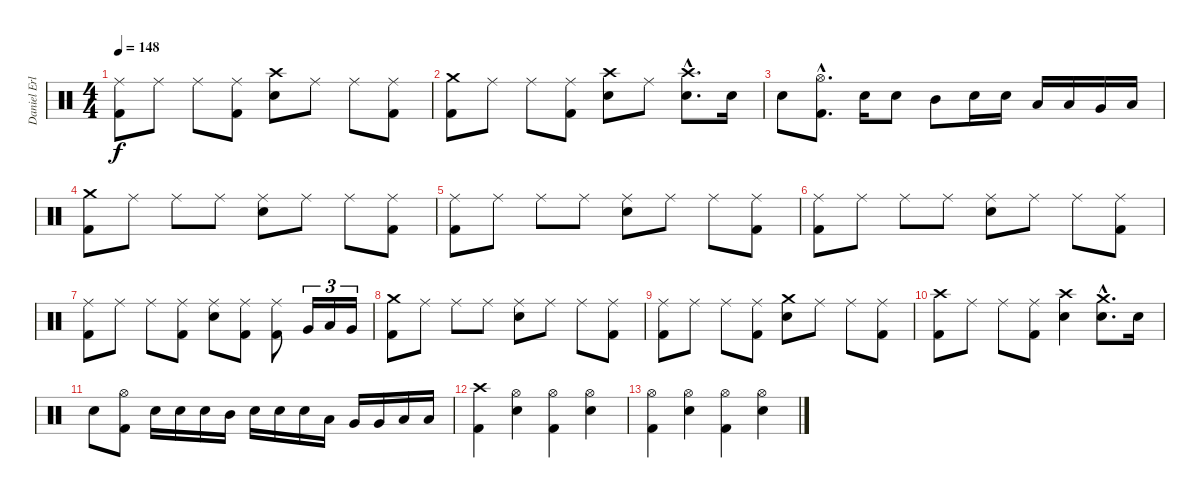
\track ("Daniel Erlandsson (Drums)" "Daniel Erl") {instrument percussion}
\staff {score}
\articulation defaults
\ts (4 4)
\tempo 148
\clef neutral
\ks c
("Ride (middle)" "Kick (hit) 2").8{dy f} "Ride (middle)".8 "Ride (middle)".8 ("Ride (middle)" "Kick (hit) 2").8 ("Crash high (hit)" "Snare (hit) 2").8 "Ride (middle)".8 "Ride (middle)".8 ("Ride (middle)" "Kick (hit) 2").8 |
("Crash medium (hit)" "Kick (hit) 2").8 "Ride (middle)".8 "Ride (middle)".8 ("Ride (middle)" "Kick (hit) 2").8 ("Crash high (hit)" "Snare (hit) 2").8 "Ride (middle)".8 ("Crash high (hit)"{hac} "Snare (hit) 2"{hac}).8{d} "Snare (hit) 2".16 |
"Snare (hit) 2".8 ("Kick (hit) 2"{hac} "Hi-Hat (open)"{hac}).8{d} "Snare (hit) 2".16 "Snare (hit) 2".8 "Mid Tom (hit)".8 "Snare (hit) 2".16 "Snare (hit) 2".16 "Low Tom (hit)".16 "Low Tom (hit)".16 "Very Low Tom (hit)".16 "Low Floor Tom (hit)".16 |
("Crash medium (hit)" "Kick (hit) 2").8 "Ride (middle)".8 "Ride (middle)".8 "Ride (middle)".8 ("Ride (middle)" "Snare (hit) 2").8 "Ride (middle)".8 "Ride (middle)".8 ("Ride (middle)" "Kick (hit) 2").8 |
("Ride (middle)" "Kick (hit) 2").8 "Ride (middle)".8 "Ride (middle)".8 "Ride (middle)".8 ("Ride (middle)" "Snare (hit) 2").8 "Ride (middle)".8 "Ride (middle)".8 ("Ride (middle)" "Kick (hit) 2").8 |
("Ride (middle)" "Kick (hit) 2").8 "Ride (middle)".8 "Ride (middle)".8 "Ride (middle)".8 ("Ride (middle)" "Snare (hit) 2").8 "Ride (middle)".8 "Ride (middle)".8 ("Ride (middle)" "Kick (hit) 2").8 |
("Ride (middle)" "Kick (hit) 2").8 "Ride (middle)".8 "Ride (middle)".8 ("Ride (middle)" "Kick (hit) 2").8 ("Ride (middle)" "Snare (hit) 2").8 ("Ride (middle)" "Kick (hit) 2").8 ("Ride (middle)" "Kick (hit) 2").8 "Very Low Tom (hit)".16{tu (3 2)} "Low Tom (hit)".16{tu (3 2)} "Very Low Tom (hit)".16{tu (3 2)} |
("Crash medium (hit)" "Kick (hit) 2").8 "Ride (middle)".8 "Ride (middle)".8 "Ride (middle)".8 ("Ride (middle)" "Snare (hit) 2").8 "Ride (middle)".8 "Ride (middle)".8 ("Ride (middle)" "Kick (hit) 2").8 |
("Ride (middle)" "Kick (hit) 2").8 "Ride (middle)".8 "Ride (middle)".8 ("Ride (middle)" "Kick (hit) 2").8 ("Crash medium (hit)" "Snare (hit) 2").8 "Ride (middle)".8 "Ride (middle)".8 ("Ride (middle)" "Kick (hit) 2").8 |
("Crash high (hit)" "Kick (hit) 2").8 "Ride (middle)".8 "Ride (middle)".8 ("Ride (middle)" "Kick (hit) 2").8 ("Crash high (hit)" "Snare (hit) 2").4 ("Crash medium (hit)"{hac} "Snare (hit) 2"{hac}).8{d} "Snare (hit) 2".16 |
"Snare (hit) 2".8 ("Kick (hit) 2" "Hi-Hat (open)").8 "Snare (hit) 2".16 "Snare (hit) 2".16 "Snare (hit) 2".16 "Mid Tom (hit)".16 "Snare (hit) 2".16 "Snare (hit) 2".16 "Snare (hit) 2".16 "Low Tom (hit)".16 "Very Low Tom (hit)".16 "Very Low Tom (hit)".16 "Low Floor Tom (hit)".16 "Low Floor Tom (hit)".16 |
("Crash high (hit)" "Kick (hit) 2").4 ("Hi-Hat (open)" "Snare (hit) 2").4 ("Hi-Hat (open)" "Kick (hit) 2").4 ("Hi-Hat (open)" "Snare (hit) 2").4 |
("Hi-Hat (open)" "Kick (hit) 2").4 ("Hi-Hat (open)" "Snare (hit) 2").4 ("Hi-Hat (open)" "Kick (hit) 2").4 ("Hi-Hat (open)" "Snare (hit) 2").4
